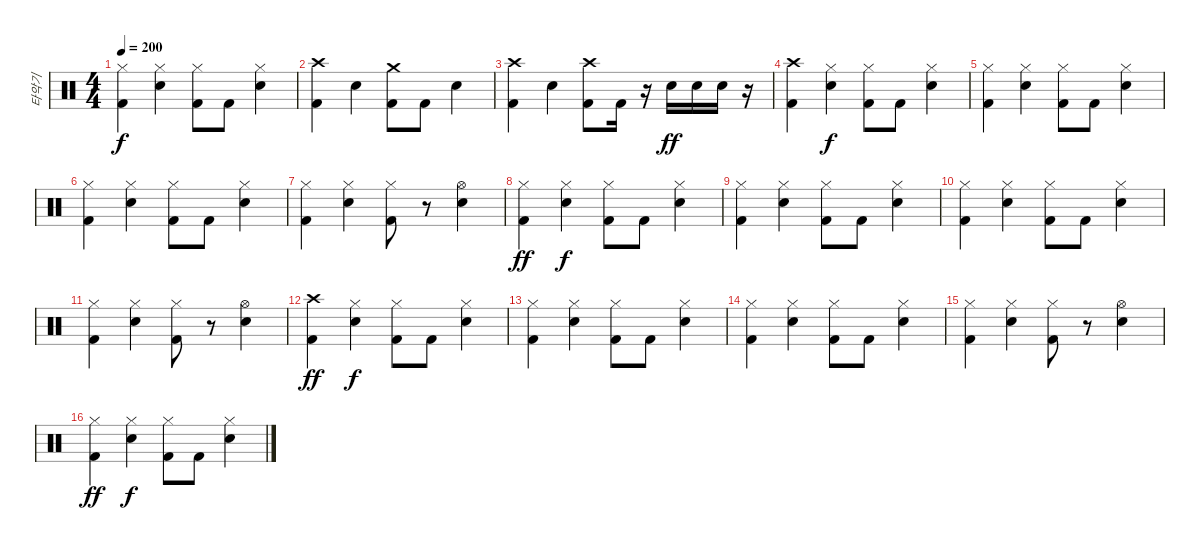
\track ("타악기" "타악기") {instrument percussion}
\staff {score}
\articulation defaults
\ts (4 4)
\tempo 200
\clef neutral
\ks c
("Hi-Hat (closed)" "Kick (hit) 2").4{dy f} ("Hi-Hat (closed)" "Snare (hit) 2").4 ("Hi-Hat (closed)" "Kick (hit) 2").8 "Kick (hit) 2".8 ("Hi-Hat (closed)" "Snare (hit) 2").4 |
("Crash high (hit)" "Kick (hit) 2").4 "Snare (hit) 2".4 ("Crash medium (hit)" "Kick (hit) 2").8 "Kick (hit) 2".8 "Snare (hit) 2".4 |
("Crash high (hit)" "Kick (hit) 2").4 "Snare (hit) 2".4 ("Crash high (hit)" "Kick (hit) 2").8 "Kick (hit) 2".16 r.16 "Snare (hit) 2".16{dy ff} "Snare (hit) 2".16 "Snare (hit) 2".16 r.16 |
("Crash high (hit)" "Kick (hit) 2").4 ("Hi-Hat (closed)" "Snare (hit) 2").4{dy f} ("Hi-Hat (closed)" "Kick (hit) 2").8 "Kick (hit) 2".8 ("Hi-Hat (closed)" "Snare (hit) 2").4 |
("Hi-Hat (closed)" "Kick (hit) 2").4 ("Hi-Hat (closed)" "Snare (hit) 2").4 ("Hi-Hat (closed)" "Kick (hit) 2").8 "Kick (hit) 2".8 ("Hi-Hat (closed)" "Snare (hit) 2").4 |
("Hi-Hat (closed)" "Kick (hit) 2").4 ("Hi-Hat (closed)" "Snare (hit) 2").4 ("Hi-Hat (closed)" "Kick (hit) 2").8 "Kick (hit) 2".8 ("Hi-Hat (closed)" "Snare (hit) 2").4 |
("Hi-Hat (closed)" "Kick (hit) 2").4 ("Hi-Hat (closed)" "Snare (hit) 2").4 ("Hi-Hat (closed)" "Kick (hit) 2").8 r.8 ("Hi-Hat (open)" "Snare (hit) 2").4 |
("Hi-Hat (closed)" "Kick (hit) 2").4{dy ff} ("Hi-Hat (closed)" "Snare (hit) 2").4{dy f} ("Hi-Hat (closed)" "Kick (hit) 2").8 "Kick (hit) 2".8 ("Hi-Hat (closed)" "Snare (hit) 2").4 |
("Hi-Hat (closed)" "Kick (hit) 2").4 ("Hi-Hat (closed)" "Snare (hit) 2").4 ("Hi-Hat (closed)" "Kick (hit) 2").8 "Kick (hit) 2".8 ("Hi-Hat (closed)" "Snare (hit) 2").4 |
("Hi-Hat (closed)" "Kick (hit) 2").4 ("Hi-Hat (closed)" "Snare (hit) 2").4 ("Hi-Hat (closed)" "Kick (hit) 2").8 "Kick (hit) 2".8 ("Hi-Hat (closed)" "Snare (hit) 2").4 |
("Hi-Hat (closed)" "Kick (hit) 2").4 ("Hi-Hat (closed)" "Snare (hit) 2").4 ("Hi-Hat (closed)" "Kick (hit) 2").8 r.8 ("Hi-Hat (open)" "Snare (hit) 2").4 |
("Crash high (hit)" "Kick (hit) 2").4{dy ff} ("Hi-Hat (closed)" "Snare (hit) 2").4{dy f} ("Hi-Hat (closed)" "Kick (hit) 2").8 "Kick (hit) 2".8 ("Hi-Hat (closed)" "Snare (hit) 2").4 |
("Hi-Hat (closed)" "Kick (hit) 2").4 ("Hi-Hat (closed)" "Snare (hit) 2").4 ("Hi-Hat (closed)" "Kick (hit) 2").8 "Kick (hit) 2".8 ("Hi-Hat (closed)" "Snare (hit) 2").4 |
("Hi-Hat (closed)" "Kick (hit) 2").4 ("Hi-Hat (closed)" "Snare (hit) 2").4 ("Hi-Hat (closed)" "Kick (hit) 2").8 "Kick (hit) 2".8 ("Hi-Hat (closed)" "Snare (hit) 2").4 |
("Hi-Hat (closed)" "Kick (hit) 2").4 ("Hi-Hat (closed)" "Snare (hit) 2").4 ("Hi-Hat (closed)" "Kick (hit) 2").8 r.8 ("Hi-Hat (open)" "Snare (hit) 2").4 |
("Hi-Hat (closed)" "Kick (hit) 2").4{dy ff} ("Hi-Hat (closed)" "Snare (hit) 2").4{dy f} ("Hi-Hat (closed)" "Kick (hit) 2").8 "Kick (hit) 2".8 ("Hi-Hat (closed)" "Snare (hit) 2").4
